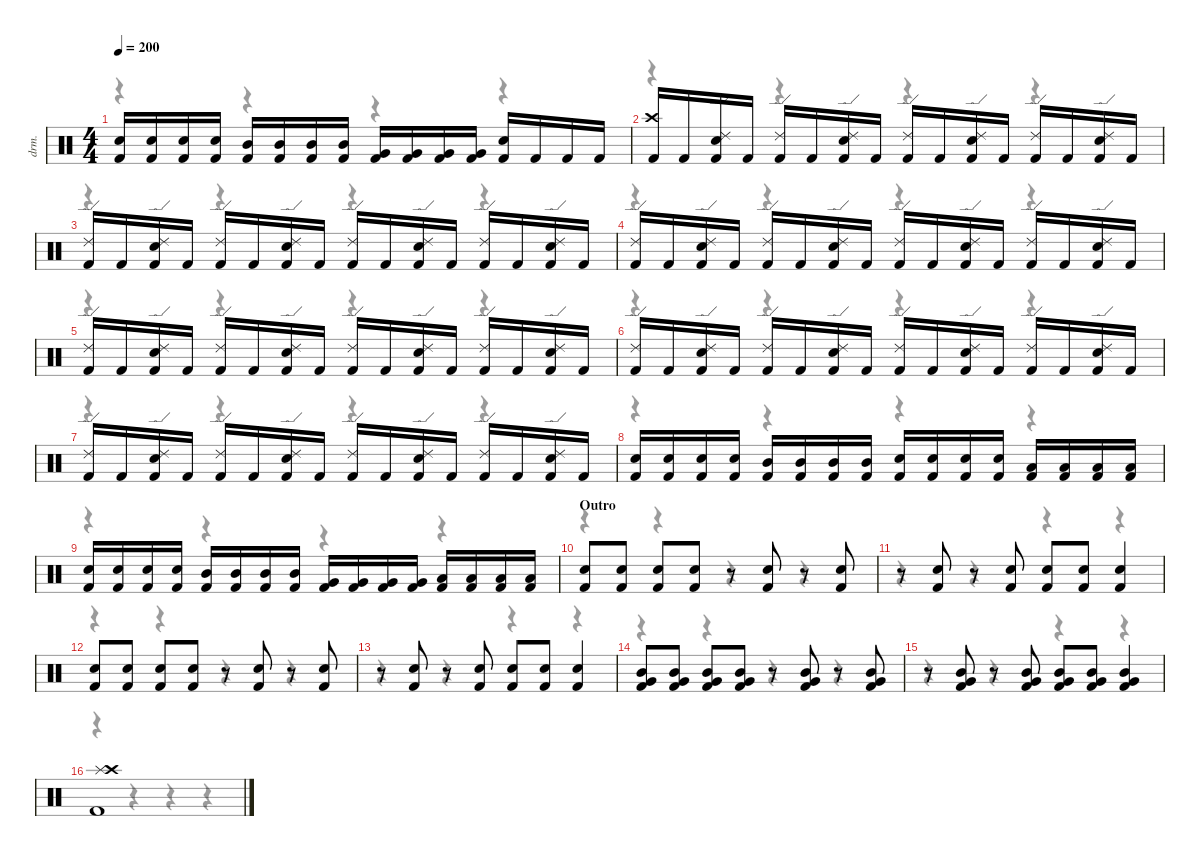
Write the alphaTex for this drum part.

\hideDynamics
\bracketExtendMode nobrackets
\otherSystemsTrackNameOrientation horizontal
\track ("Drums" "drm.") {instrument percussion}
\staff {score}
\articulation defaults
\voice
\ts (4 4)
\scale
1.09391
\tempo 200
\accidentals auto
\clef neutral
\ottava regular
\simile none
\ks c
("Kick (hit) 2" "Snare (hit) 2").16{dy f} ("Kick (hit) 2" "Snare (hit) 2").16 ("Kick (hit) 2" "Snare (hit) 2").16 ("Kick (hit) 2" "Snare (hit) 2").16 ("Kick (hit) 2" "Mid Tom (hit)").16 ("Kick (hit) 2" "Mid Tom (hit)").16 ("Kick (hit) 2" "Mid Tom (hit)").16 ("Kick (hit) 2" "Mid Tom (hit)").16 ("Kick (hit) 2" "Very Low Tom (hit)").16 ("Kick (hit) 2" "Very Low Tom (hit)").16 ("Kick (hit) 2" "Very Low Tom (hit)").16 ("Kick (hit) 2" "Very Low Tom (hit)").16 ("Kick (hit) 2" "Snare (hit) 2").16 "Kick (hit) 2".16 "Kick (hit) 2".16 "Kick (hit) 2".16 |
\section ("" "")
\scale
0.978277 ("Kick (hit) 2" "Crash high (hit)").16 "Kick (hit) 2".16 ("Kick (hit) 2" "Snare (hit) 2" "Ride (edge) 2").16 "Kick (hit) 2".16 ("Kick (hit) 2" "Ride (edge) 2").16 "Kick (hit) 2".16 ("Kick (hit) 2" "Snare (hit) 2" "Ride (edge) 2").16 "Kick (hit) 2".16 ("Kick (hit) 2" "Ride (edge) 2").16 "Kick (hit) 2".16 ("Kick (hit) 2" "Snare (hit) 2" "Ride (edge) 2").16 "Kick (hit) 2".16 ("Kick (hit) 2" "Ride (edge) 2").16 "Kick (hit) 2".16 ("Kick (hit) 2" "Snare (hit) 2" "Ride (edge) 2").16 "Kick (hit) 2".16 |
\scale
0.978277 ("Kick (hit) 2" "Ride (edge) 2").16 "Kick (hit) 2".16 ("Kick (hit) 2" "Snare (hit) 2" "Ride (edge) 2").16 "Kick (hit) 2".16 ("Kick (hit) 2" "Ride (edge) 2").16 "Kick (hit) 2".16 ("Kick (hit) 2" "Snare (hit) 2" "Ride (edge) 2").16 "Kick (hit) 2".16 ("Kick (hit) 2" "Ride (edge) 2").16 "Kick (hit) 2".16 ("Kick (hit) 2" "Snare (hit) 2" "Ride (edge) 2").16 "Kick (hit) 2".16 ("Kick (hit) 2" "Ride (edge) 2").16 "Kick (hit) 2".16 ("Kick (hit) 2" "Snare (hit) 2" "Ride (edge) 2").16 "Kick (hit) 2".16 |
\scale
0.978277 ("Kick (hit) 2" "Ride (edge) 2").16 "Kick (hit) 2".16 ("Kick (hit) 2" "Snare (hit) 2" "Ride (edge) 2").16 "Kick (hit) 2".16 ("Kick (hit) 2" "Ride (edge) 2").16 "Kick (hit) 2".16 ("Kick (hit) 2" "Snare (hit) 2" "Ride (edge) 2").16 "Kick (hit) 2".16 ("Kick (hit) 2" "Ride (edge) 2").16 "Kick (hit) 2".16 ("Kick (hit) 2" "Snare (hit) 2" "Ride (edge) 2").16 "Kick (hit) 2".16 ("Kick (hit) 2" "Ride (edge) 2").16 "Kick (hit) 2".16 ("Kick (hit) 2" "Snare (hit) 2" "Ride (edge) 2").16 "Kick (hit) 2".16 |
\scale
0.978277 ("Kick (hit) 2" "Ride (edge) 2").16 "Kick (hit) 2".16 ("Kick (hit) 2" "Snare (hit) 2" "Ride (edge) 2").16 "Kick (hit) 2".16 ("Kick (hit) 2" "Ride (edge) 2").16 "Kick (hit) 2".16 ("Kick (hit) 2" "Snare (hit) 2" "Ride (edge) 2").16 "Kick (hit) 2".16 ("Kick (hit) 2" "Ride (edge) 2").16 "Kick (hit) 2".16 ("Kick (hit) 2" "Snare (hit) 2" "Ride (edge) 2").16 "Kick (hit) 2".16 ("Kick (hit) 2" "Ride (edge) 2").16 "Kick (hit) 2".16 ("Kick (hit) 2" "Snare (hit) 2" "Ride (edge) 2").16 "Kick (hit) 2".16 |
\scale
0.992988 ("Kick (hit) 2" "Ride (edge) 2").16 "Kick (hit) 2".16 ("Kick (hit) 2" "Snare (hit) 2" "Ride (edge) 2").16 "Kick (hit) 2".16 ("Kick (hit) 2" "Ride (edge) 2").16 "Kick (hit) 2".16 ("Kick (hit) 2" "Snare (hit) 2" "Ride (edge) 2").16 "Kick (hit) 2".16 ("Kick (hit) 2" "Ride (edge) 2").16 "Kick (hit) 2".16 ("Kick (hit) 2" "Snare (hit) 2" "Ride (edge) 2").16 "Kick (hit) 2".16 ("Kick (hit) 2" "Ride (edge) 2").16 "Kick (hit) 2".16 ("Kick (hit) 2" "Snare (hit) 2" "Ride (edge) 2").16 "Kick (hit) 2".16 |
\scale
1.06188 ("Kick (hit) 2" "Ride (edge) 2").16 "Kick (hit) 2".16 ("Kick (hit) 2" "Snare (hit) 2" "Ride (edge) 2").16 "Kick (hit) 2".16 ("Kick (hit) 2" "Ride (edge) 2").16 "Kick (hit) 2".16 ("Kick (hit) 2" "Snare (hit) 2" "Ride (edge) 2").16 "Kick (hit) 2".16 ("Kick (hit) 2" "Ride (edge) 2").16 "Kick (hit) 2".16 ("Kick (hit) 2" "Snare (hit) 2" "Ride (edge) 2").16 "Kick (hit) 2".16 ("Kick (hit) 2" "Ride (edge) 2").16 "Kick (hit) 2".16 ("Kick (hit) 2" "Snare (hit) 2" "Ride (edge) 2").16 "Kick (hit) 2".16 |
\scale
0.975825 ("Kick (hit) 2" "Snare (hit) 2").16 ("Kick (hit) 2" "Snare (hit) 2").16 ("Kick (hit) 2" "Snare (hit) 2").16 ("Kick (hit) 2" "Snare (hit) 2").16 ("Kick (hit) 2" "Mid Tom (hit)").16 ("Kick (hit) 2" "Mid Tom (hit)").16 ("Kick (hit) 2" "Mid Tom (hit)").16 ("Kick (hit) 2" "Mid Tom (hit)").16 ("Kick (hit) 2" "Snare (hit) 2").16 ("Kick (hit) 2" "Snare (hit) 2").16 ("Kick (hit) 2" "Snare (hit) 2").16 ("Kick (hit) 2" "Snare (hit) 2").16 ("Kick (hit) 2" "Low Tom (hit)").16 ("Kick (hit) 2" "Low Tom (hit)").16 ("Kick (hit) 2" "Low Tom (hit)").16 ("Kick (hit) 2" "Low Tom (hit)").16 |
\scale
0.998382 ("Kick (hit) 2" "Snare (hit) 2").16 ("Kick (hit) 2" "Snare (hit) 2").16 ("Kick (hit) 2" "Snare (hit) 2").16 ("Kick (hit) 2" "Snare (hit) 2").16 ("Kick (hit) 2" "Mid Tom (hit)").16 ("Kick (hit) 2" "Mid Tom (hit)").16 ("Kick (hit) 2" "Mid Tom (hit)").16 ("Kick (hit) 2" "Mid Tom (hit)").16 ("Kick (hit) 2" "Very Low Tom (hit)").16 ("Kick (hit) 2" "Very Low Tom (hit)").16 ("Kick (hit) 2" "Very Low Tom (hit)").16 ("Kick (hit) 2" "Very Low Tom (hit)").16 ("Kick (hit) 2" "Low Floor Tom (hit)").16 ("Kick (hit) 2" "Low Floor Tom (hit)").16 ("Kick (hit) 2" "Low Floor Tom (hit)").16 ("Kick (hit) 2" "Low Floor Tom (hit)").16 |
\section ("" "Outro")
\scale
0.988084 ("Kick (hit) 2" "Snare (hit) 2").8 ("Kick (hit) 2" "Snare (hit) 2").8 ("Kick (hit) 2" "Snare (hit) 2").8 ("Kick (hit) 2" "Snare (hit) 2").8 r.8 ("Kick (hit) 2" "Snare (hit) 2").8 r.8 ("Kick (hit) 2" "Snare (hit) 2").8 |
\scale
0.975825 r.8 ("Kick (hit) 2" "Snare (hit) 2").8 r.8 ("Kick (hit) 2" "Snare (hit) 2").8 ("Kick (hit) 2" "Snare (hit) 2").8 ("Kick (hit) 2" "Snare (hit) 2").8 ("Kick (hit) 2" "Snare (hit) 2").4 |
\scale
1.09592 ("Kick (hit) 2" "Snare (hit) 2").8 ("Kick (hit) 2" "Snare (hit) 2").8 ("Kick (hit) 2" "Snare (hit) 2").8 ("Kick (hit) 2" "Snare (hit) 2").8 r.8 ("Kick (hit) 2" "Snare (hit) 2").8 r.8 ("Kick (hit) 2" "Snare (hit) 2").8 |
\scale
0.992595 r.8 ("Kick (hit) 2" "Snare (hit) 2").8 r.8 ("Kick (hit) 2" "Snare (hit) 2").8 ("Kick (hit) 2" "Snare (hit) 2").8 ("Kick (hit) 2" "Snare (hit) 2").8 ("Kick (hit) 2" "Snare (hit) 2").4 |
\scale
0.992595 ("Kick (hit) 2" "Very Low Tom (hit)" "Mid Tom (hit)").8 ("Kick (hit) 2" "Very Low Tom (hit)" "Mid Tom (hit)").8 ("Kick (hit) 2" "Very Low Tom (hit)" "Mid Tom (hit)").8 ("Kick (hit) 2" "Very Low Tom (hit)" "Mid Tom (hit)").8 r.8 ("Kick (hit) 2" "Very Low Tom (hit)" "Mid Tom (hit)").8 r.8 ("Kick (hit) 2" "Very Low Tom (hit)" "Mid Tom (hit)").8 |
\scale
0.992595 r.8 ("Kick (hit) 2" "Very Low Tom (hit)" "Mid Tom (hit)").8 r.8 ("Kick (hit) 2" "Very Low Tom (hit)" "Mid Tom (hit)").8 ("Kick (hit) 2" "Very Low Tom (hit)" "Mid Tom (hit)").8 ("Kick (hit) 2" "Very Low Tom (hit)" "Mid Tom (hit)").8 ("Kick (hit) 2" "Very Low Tom (hit)" "Mid Tom (hit)").4 |
\scale
0.975432 ("Kick (hit) 2" "Splash (hit)" "Crash high (hit)").1
\voice
\clef neutral
\ottava regular
\simile none
\ks c
r.4{dy mf} r.4 r.4 r.4 |
r.4 r.4 r.4 r.4 |
r.4 r.4 r.4 r.4 |
r.4 r.4 r.4 r.4 |
r.4 r.4 r.4 r.4 |
r.4 r.4 r.4 r.4 |
r.4 r.4 r.4 r.4 |
r.4 r.4 r.4 r.4 |
r.4 r.4 r.4 r.4 |
r.4 r.4 r.4 r.4 |
r.4 r.4 r.4 r.4 |
r.4 r.4 r.4 r.4 |
r.4 r.4 r.4 r.4 |
r.4 r.4 r.4 r.4 |
r.4 r.4 r.4 r.4 |
r.4 r.4 r.4 r.4
